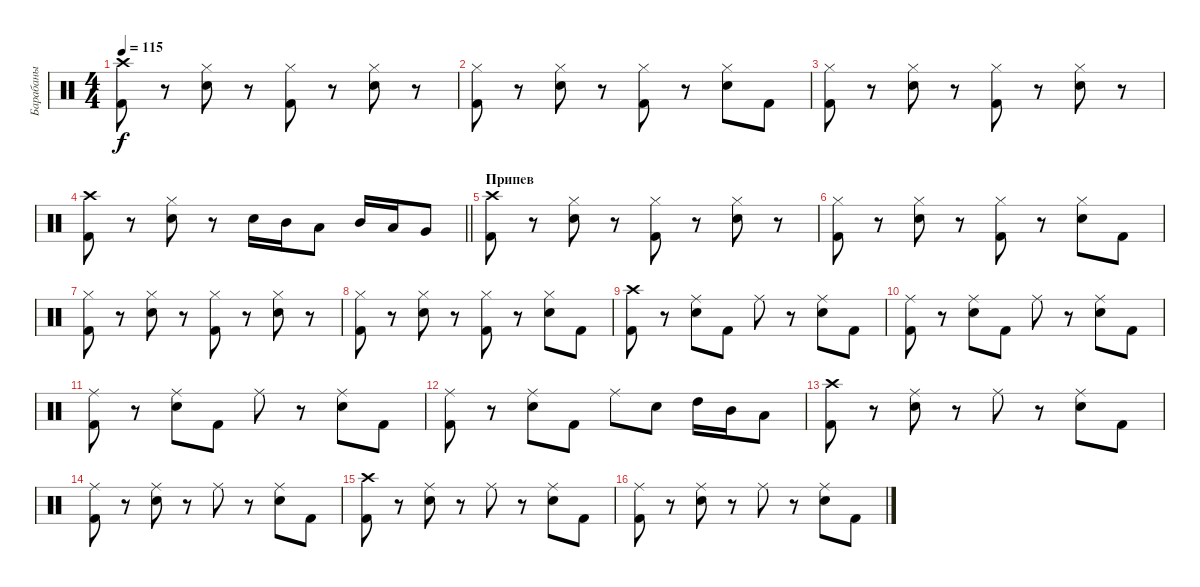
\track ("Барабаны" "Барабаны") {instrument percussion}
\staff {score}
\articulation defaults
\ts (4 4)
\tempo 115
\clef neutral
\ks c
("Kick (hit) 2" "Crash high (hit)").8{dy f} r.8 ("Snare (hit) 2" "Hi-Hat (closed)").8 r.8 ("Kick (hit) 2" "Hi-Hat (closed)").8 r.8 ("Snare (hit) 2" "Hi-Hat (closed)").8 r.8 |
("Kick (hit) 2" "Hi-Hat (closed)").8 r.8 ("Snare (hit) 2" "Hi-Hat (closed)").8 r.8 ("Kick (hit) 2" "Hi-Hat (closed)").8 r.8 ("Snare (hit) 2" "Hi-Hat (closed)").8 "Kick (hit) 2".8 |
("Kick (hit) 2" "Hi-Hat (closed)").8 r.8 ("Snare (hit) 2" "Hi-Hat (closed)").8 r.8 ("Kick (hit) 2" "Hi-Hat (closed)").8 r.8 ("Snare (hit) 2" "Hi-Hat (closed)").8 r.8 |
\barLineRight lightlight
("Kick (hit) 2" "Crash high (hit)").8 r.8 ("Snare (hit) 2" "Hi-Hat (closed)").8 r.8 "Electric Snare (hit)".16 "Mid Tom (hit)".16 "Low Tom (hit)".8 "Mid Tom (hit)".16 "Low Tom (hit)".16 "Very Low Tom (hit)".8 |
\section ("" "Припев")
("Kick (hit) 2" "Crash high (hit)").8 r.8 ("Snare (hit) 2" "Hi-Hat (closed)").8 r.8 ("Kick (hit) 2" "Hi-Hat (closed)").8 r.8 ("Snare (hit) 2" "Hi-Hat (closed)").8 r.8 |
("Kick (hit) 2" "Hi-Hat (closed)").8 r.8 ("Snare (hit) 2" "Hi-Hat (closed)").8 r.8 ("Kick (hit) 2" "Hi-Hat (closed)").8 r.8 ("Snare (hit) 2" "Hi-Hat (closed)").8 "Kick (hit) 2".8 |
("Kick (hit) 2" "Hi-Hat (closed)").8 r.8 ("Snare (hit) 2" "Hi-Hat (closed)").8 r.8 ("Kick (hit) 2" "Hi-Hat (closed)").8 r.8 ("Snare (hit) 2" "Hi-Hat (closed)").8 r.8 |
("Kick (hit) 2" "Hi-Hat (closed)").8 r.8 ("Snare (hit) 2" "Hi-Hat (closed)").8 r.8 ("Kick (hit) 2" "Hi-Hat (closed)").8 r.8 ("Snare (hit) 2" "Hi-Hat (closed)").8 "Kick (hit) 2".8 |
("Kick (hit) 2" "Crash high (hit)").8 r.8 ("Snare (hit) 2" "Ride (middle)").8 "Kick (hit) 2".8 "Ride (middle)".8 r.8 ("Snare (hit) 2" "Ride (middle)").8 "Kick (hit) 2".8 |
("Kick (hit) 2" "Ride (middle)").8 r.8 ("Snare (hit) 2" "Ride (middle)").8 "Kick (hit) 2".8 "Ride (middle)".8 r.8 ("Snare (hit) 2" "Ride (middle)").8 "Kick (hit) 2".8 |
("Kick (hit) 2" "Ride (middle)").8 r.8 ("Snare (hit) 2" "Ride (middle)").8 "Kick (hit) 2".8 "Ride (middle)".8 r.8 ("Snare (hit) 2" "Ride (middle)").8 "Kick (hit) 2".8 |
("Kick (hit) 2" "Ride (middle)").8 r.8 ("Snare (hit) 2" "Ride (middle)").8 "Kick (hit) 2".8 "Ride (middle)".8 "Electric Snare (hit)".8 "High Tom (hit)".16 "Mid Tom (hit)".16 "Low Tom (hit)".8 |
("Kick (hit) 2" "Crash high (hit)").8 r.8 ("Snare (hit) 2" "Ride (middle)").8 r.8 "Ride (middle)".8 r.8 ("Snare (hit) 2" "Ride (middle)").8 "Kick (hit) 2".8 |
("Kick (hit) 2" "Ride (middle)").8 r.8 ("Snare (hit) 2" "Ride (middle)").8 r.8 "Ride (middle)".8 r.8 ("Snare (hit) 2" "Ride (middle)").8 "Kick (hit) 2".8 |
("Kick (hit) 2" "Crash high (hit)").8 r.8 ("Snare (hit) 2" "Ride (middle)").8 r.8 "Ride (middle)".8 r.8 ("Snare (hit) 2" "Ride (middle)").8 "Kick (hit) 2".8 |
("Kick (hit) 2" "Ride (middle)").8 r.8 ("Snare (hit) 2" "Ride (middle)").8 r.8 "Ride (middle)".8 r.8 ("Snare (hit) 2" "Ride (middle)").8 "Kick (hit) 2".8
